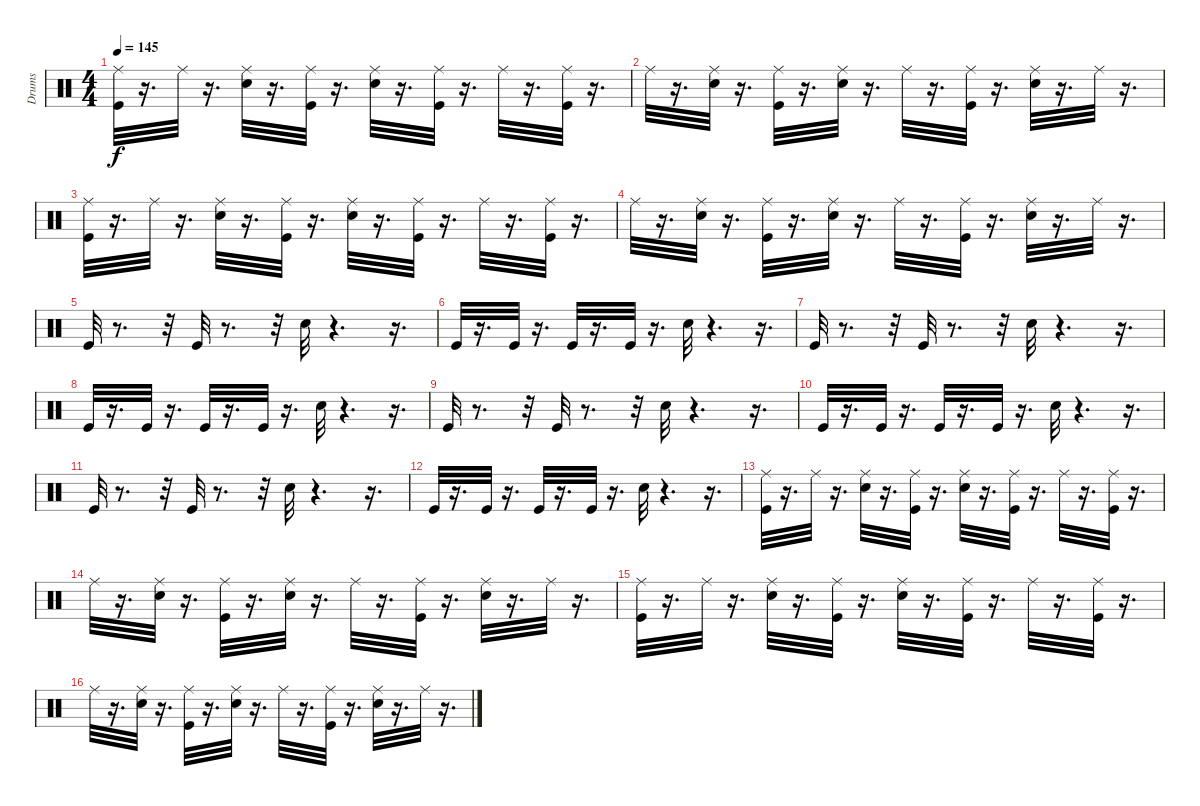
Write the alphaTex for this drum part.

\track ("Drums" "Drums") {instrument percussion}
\staff {score}
\articulation defaults
\ts (4 4)
\tempo 145
\clef neutral
\ks c
("Kick (hit)" "Ride (middle)").32{dy f} r.16{d} "Ride (middle)".32 r.16{d} ("Snare (hit) 2" "Ride (middle)").32 r.16{d} ("Ride (middle)" "Kick (hit)").32 r.16{d} ("Snare (hit) 2" "Ride (middle)").32 r.16{d} ("Kick (hit)" "Ride (middle)").32 r.16{d} "Ride (middle)".32 r.16{d} ("Ride (middle)" "Kick (hit)").32 r.16{d} |
"Ride (middle)".32 r.16{d} ("Ride (middle)" "Snare (hit) 2").32 r.16{d} ("Ride (middle)" "Kick (hit)").32 r.16{d} ("Ride (middle)" "Snare (hit) 2").32 r.16{d} "Ride (middle)".32 r.16{d} ("Ride (middle)" "Kick (hit)").32 r.16{d} ("Ride (middle)" "Snare (hit) 2").32 r.16{d} "Ride (middle)".32 r.16{d} |
("Kick (hit)" "Ride (middle)").32 r.16{d} "Ride (middle)".32 r.16{d} ("Snare (hit) 2" "Ride (middle)").32 r.16{d} ("Ride (middle)" "Kick (hit)").32 r.16{d} ("Snare (hit) 2" "Ride (middle)").32 r.16{d} ("Kick (hit)" "Ride (middle)").32 r.16{d} "Ride (middle)".32 r.16{d} ("Ride (middle)" "Kick (hit)").32 r.16{d} |
"Ride (middle)".32 r.16{d} ("Ride (middle)" "Snare (hit) 2").32 r.16{d} ("Ride (middle)" "Kick (hit)").32 r.16{d} ("Ride (middle)" "Snare (hit) 2").32 r.16{d} "Ride (middle)".32 r.16{d} ("Ride (middle)" "Kick (hit)").32 r.16{d} ("Ride (middle)" "Snare (hit) 2").32 r.16{d} "Ride (middle)".32 r.16{d} |
"Kick (hit)".32 r.8{d} r.32 "Kick (hit)".32 r.8{d} r.32 "Snare (hit) 2".32 r.4{d} r.16{d} |
"Kick (hit)".32 r.16{d} "Kick (hit)".32 r.16{d} "Kick (hit)".32 r.16{d} "Kick (hit)".32 r.16{d} "Snare (hit) 2".32 r.4{d} r.16{d} |
"Kick (hit)".32 r.8{d} r.32 "Kick (hit)".32 r.8{d} r.32 "Snare (hit) 2".32 r.4{d} r.16{d} |
"Kick (hit)".32 r.16{d} "Kick (hit)".32 r.16{d} "Kick (hit)".32 r.16{d} "Kick (hit)".32 r.16{d} "Snare (hit) 2".32 r.4{d} r.16{d} |
"Kick (hit)".32 r.8{d} r.32 "Kick (hit)".32 r.8{d} r.32 "Snare (hit) 2".32 r.4{d} r.16{d} |
"Kick (hit)".32 r.16{d} "Kick (hit)".32 r.16{d} "Kick (hit)".32 r.16{d} "Kick (hit)".32 r.16{d} "Snare (hit) 2".32 r.4{d} r.16{d} |
"Kick (hit)".32 r.8{d} r.32 "Kick (hit)".32 r.8{d} r.32 "Snare (hit) 2".32 r.4{d} r.16{d} |
"Kick (hit)".32 r.16{d} "Kick (hit)".32 r.16{d} "Kick (hit)".32 r.16{d} "Kick (hit)".32 r.16{d} "Snare (hit) 2".32 r.4{d} r.16{d} |
("Ride (middle)" "Kick (hit)").32 r.16{d} "Ride (middle)".32 r.16{d} ("Snare (hit) 2" "Ride (middle)").32 r.16{d} ("Ride (middle)" "Kick (hit)").32 r.16{d} ("Snare (hit) 2" "Ride (middle)").32 r.16{d} ("Kick (hit)" "Ride (middle)").32 r.16{d} "Ride (middle)".32 r.16{d} ("Ride (middle)" "Kick (hit)").32 r.16{d} |
"Ride (middle)".32 r.16{d} ("Ride (middle)" "Snare (hit) 2").32 r.16{d} ("Ride (middle)" "Kick (hit)").32 r.16{d} ("Ride (middle)" "Snare (hit) 2").32 r.16{d} "Ride (middle)".32 r.16{d} ("Ride (middle)" "Kick (hit)").32 r.16{d} ("Ride (middle)" "Snare (hit) 2").32 r.16{d} "Ride (middle)".32 r.16{d} |
("Kick (hit)" "Ride (middle)").32 r.16{d} "Ride (middle)".32 r.16{d} ("Snare (hit) 2" "Ride (middle)").32 r.16{d} ("Ride (middle)" "Kick (hit)").32 r.16{d} ("Snare (hit) 2" "Ride (middle)").32 r.16{d} ("Kick (hit)" "Ride (middle)").32 r.16{d} "Ride (middle)".32 r.16{d} ("Ride (middle)" "Kick (hit)").32 r.16{d} |
"Ride (middle)".32 r.16{d} ("Ride (middle)" "Snare (hit) 2").32 r.16{d} ("Ride (middle)" "Kick (hit)").32 r.16{d} ("Ride (middle)" "Snare (hit) 2").32 r.16{d} "Ride (middle)".32 r.16{d} ("Ride (middle)" "Kick (hit)").32 r.16{d} ("Ride (middle)" "Snare (hit) 2").32 r.16{d} "Ride (middle)".32 r.16{d}
